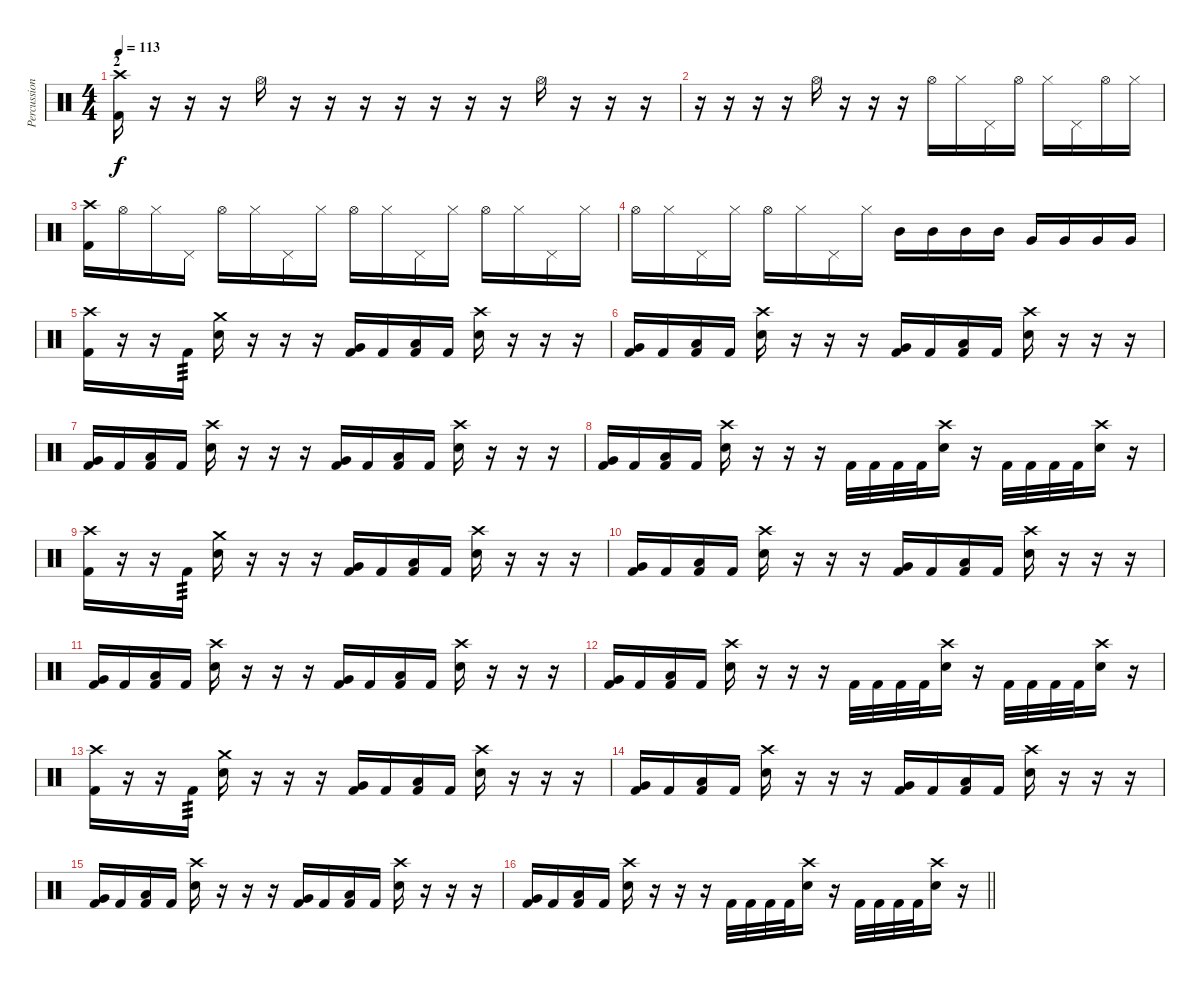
\track ("Percussion" "Percussion") {instrument percussion}
\staff {score}
\articulation defaults
\ts (4 4)
\section ("" "2")
\tempo 113
\clef neutral
\ks c
("Crash high (hit)" "Kick (hit) 2").16{dy f} r.16 r.16 r.16 "Hi-Hat (open)".16 r.16 r.16 r.16 r.16 r.16 r.16 r.16 "Hi-Hat (open)".16 r.16 r.16 r.16 |
r.16 r.16 r.16 r.16 "Hi-Hat (open)".16 r.16 r.16 r.16 "Hi-Hat (open)".16 "Hi-Hat (closed)".16 "Pedal Hi-Hat (hit)".16 "Hi-Hat (open)".16 "Hi-Hat (closed)".16 "Pedal Hi-Hat (hit)".16 "Hi-Hat (open)".16 "Hi-Hat (closed)".16 |
("Crash high (hit)" "Kick (hit) 2").16 "Hi-Hat (open)".16 "Hi-Hat (closed)".16 "Pedal Hi-Hat (hit)".16 "Hi-Hat (open)".16 "Hi-Hat (closed)".16 "Pedal Hi-Hat (hit)".16 "Hi-Hat (closed)".16 "Hi-Hat (open)".16 "Hi-Hat (closed)".16 "Pedal Hi-Hat (hit)".16 "Hi-Hat (closed)".16 "Hi-Hat (open)".16 "Hi-Hat (closed)".16 "Pedal Hi-Hat (hit)".16 "Hi-Hat (closed)".16 |
"Hi-Hat (open)".16 "Hi-Hat (closed)".16 "Pedal Hi-Hat (hit)".16 "Hi-Hat (closed)".16 "Hi-Hat (open)".16 "Hi-Hat (closed)".16 "Pedal Hi-Hat (hit)".16 "Hi-Hat (closed)".16 "Mid Tom (hit)".16 "Mid Tom (hit)".16 "Mid Tom (hit)".16 "Mid Tom (hit)".16 "Very Low Tom (hit)".16 "Very Low Tom (hit)".16 "Very Low Tom (hit)".16 "Very Low Tom (hit)".16 |
("Crash high (hit)" "Kick (hit) 2").16 r.16 r.16 "Kick (hit) 2".16{tp 3} ("Crash medium (hit)" "Electric Snare (hit)").16 r.16 r.16 r.16 ("Very Low Tom (hit)" "Kick (hit) 2").16 "Kick (hit) 2".16 ("Low Floor Tom (hit)" "Kick (hit) 2").16 "Kick (hit) 2".16 ("Crash high (hit)" "Electric Snare (hit)").16 r.16 r.16 r.16 |
("Very Low Tom (hit)" "Kick (hit) 2").16 "Kick (hit) 2".16 ("Low Floor Tom (hit)" "Kick (hit) 2").16 "Kick (hit) 2".16 ("Crash high (hit)" "Electric Snare (hit)").16 r.16 r.16 r.16 ("Very Low Tom (hit)" "Kick (hit) 2").16 "Kick (hit) 2".16 ("Low Floor Tom (hit)" "Kick (hit) 2").16 "Kick (hit) 2".16 ("Crash high (hit)" "Electric Snare (hit)").16 r.16 r.16 r.16 |
("Very Low Tom (hit)" "Kick (hit) 2").16 "Kick (hit) 2".16 ("Low Floor Tom (hit)" "Kick (hit) 2").16 "Kick (hit) 2".16 ("Crash high (hit)" "Electric Snare (hit)").16 r.16 r.16 r.16 ("Very Low Tom (hit)" "Kick (hit) 2").16 "Kick (hit) 2".16 ("Low Floor Tom (hit)" "Kick (hit) 2").16 "Kick (hit) 2".16 ("Crash high (hit)" "Electric Snare (hit)").16 r.16 r.16 r.16 |
("Very Low Tom (hit)" "Kick (hit) 2").16 "Kick (hit) 2".16 ("Low Floor Tom (hit)" "Kick (hit) 2").16 "Kick (hit) 2".16 ("Crash high (hit)" "Electric Snare (hit)").16 r.16 r.16 r.16 "Kick (hit) 2".32 "Kick (hit) 2".32 "Kick (hit) 2".32 "Kick (hit) 2".32 ("Crash high (hit)" "Electric Snare (hit)").16 r.16 "Kick (hit) 2".32 "Kick (hit) 2".32 "Kick (hit) 2".32 "Kick (hit) 2".32 ("Crash high (hit)" "Electric Snare (hit)").16 r.16 |
("Crash high (hit)" "Kick (hit) 2").16 r.16 r.16 "Kick (hit) 2".16{tp 3} ("Crash medium (hit)" "Electric Snare (hit)").16 r.16 r.16 r.16 ("Very Low Tom (hit)" "Kick (hit) 2").16 "Kick (hit) 2".16 ("Low Floor Tom (hit)" "Kick (hit) 2").16 "Kick (hit) 2".16 ("Crash high (hit)" "Electric Snare (hit)").16 r.16 r.16 r.16 |
("Very Low Tom (hit)" "Kick (hit) 2").16 "Kick (hit) 2".16 ("Low Floor Tom (hit)" "Kick (hit) 2").16 "Kick (hit) 2".16 ("Crash high (hit)" "Electric Snare (hit)").16 r.16 r.16 r.16 ("Very Low Tom (hit)" "Kick (hit) 2").16 "Kick (hit) 2".16 ("Low Floor Tom (hit)" "Kick (hit) 2").16 "Kick (hit) 2".16 ("Crash high (hit)" "Electric Snare (hit)").16 r.16 r.16 r.16 |
("Very Low Tom (hit)" "Kick (hit) 2").16 "Kick (hit) 2".16 ("Low Floor Tom (hit)" "Kick (hit) 2").16 "Kick (hit) 2".16 ("Crash high (hit)" "Electric Snare (hit)").16 r.16 r.16 r.16 ("Very Low Tom (hit)" "Kick (hit) 2").16 "Kick (hit) 2".16 ("Low Floor Tom (hit)" "Kick (hit) 2").16 "Kick (hit) 2".16 ("Crash high (hit)" "Electric Snare (hit)").16 r.16 r.16 r.16 |
("Very Low Tom (hit)" "Kick (hit) 2").16 "Kick (hit) 2".16 ("Low Floor Tom (hit)" "Kick (hit) 2").16 "Kick (hit) 2".16 ("Crash high (hit)" "Electric Snare (hit)").16 r.16 r.16 r.16 "Kick (hit) 2".32 "Kick (hit) 2".32 "Kick (hit) 2".32 "Kick (hit) 2".32 ("Crash high (hit)" "Electric Snare (hit)").16 r.16 "Kick (hit) 2".32 "Kick (hit) 2".32 "Kick (hit) 2".32 "Kick (hit) 2".32 ("Crash high (hit)" "Electric Snare (hit)").16 r.16 |
("Crash high (hit)" "Kick (hit) 2").16 r.16 r.16 "Kick (hit) 2".16{tp 3} ("Crash medium (hit)" "Electric Snare (hit)").16 r.16 r.16 r.16 ("Very Low Tom (hit)" "Kick (hit) 2").16 "Kick (hit) 2".16 ("Low Floor Tom (hit)" "Kick (hit) 2").16 "Kick (hit) 2".16 ("Crash high (hit)" "Electric Snare (hit)").16 r.16 r.16 r.16 |
("Very Low Tom (hit)" "Kick (hit) 2").16 "Kick (hit) 2".16 ("Low Floor Tom (hit)" "Kick (hit) 2").16 "Kick (hit) 2".16 ("Crash high (hit)" "Electric Snare (hit)").16 r.16 r.16 r.16 ("Very Low Tom (hit)" "Kick (hit) 2").16 "Kick (hit) 2".16 ("Low Floor Tom (hit)" "Kick (hit) 2").16 "Kick (hit) 2".16 ("Crash high (hit)" "Electric Snare (hit)").16 r.16 r.16 r.16 |
("Very Low Tom (hit)" "Kick (hit) 2").16 "Kick (hit) 2".16 ("Low Floor Tom (hit)" "Kick (hit) 2").16 "Kick (hit) 2".16 ("Crash high (hit)" "Electric Snare (hit)").16 r.16 r.16 r.16 ("Very Low Tom (hit)" "Kick (hit) 2").16 "Kick (hit) 2".16 ("Low Floor Tom (hit)" "Kick (hit) 2").16 "Kick (hit) 2".16 ("Crash high (hit)" "Electric Snare (hit)").16 r.16 r.16 r.16 |
\barLineRight lightlight
("Very Low Tom (hit)" "Kick (hit) 2").16 "Kick (hit) 2".16 ("Low Floor Tom (hit)" "Kick (hit) 2").16 "Kick (hit) 2".16 ("Crash high (hit)" "Electric Snare (hit)").16 r.16 r.16 r.16 "Kick (hit) 2".32 "Kick (hit) 2".32 "Kick (hit) 2".32 "Kick (hit) 2".32 ("Crash high (hit)" "Electric Snare (hit)").16 r.16 "Kick (hit) 2".32 "Kick (hit) 2".32 "Kick (hit) 2".32 "Kick (hit) 2".32 ("Crash high (hit)" "Electric Snare (hit)").16 r.16
